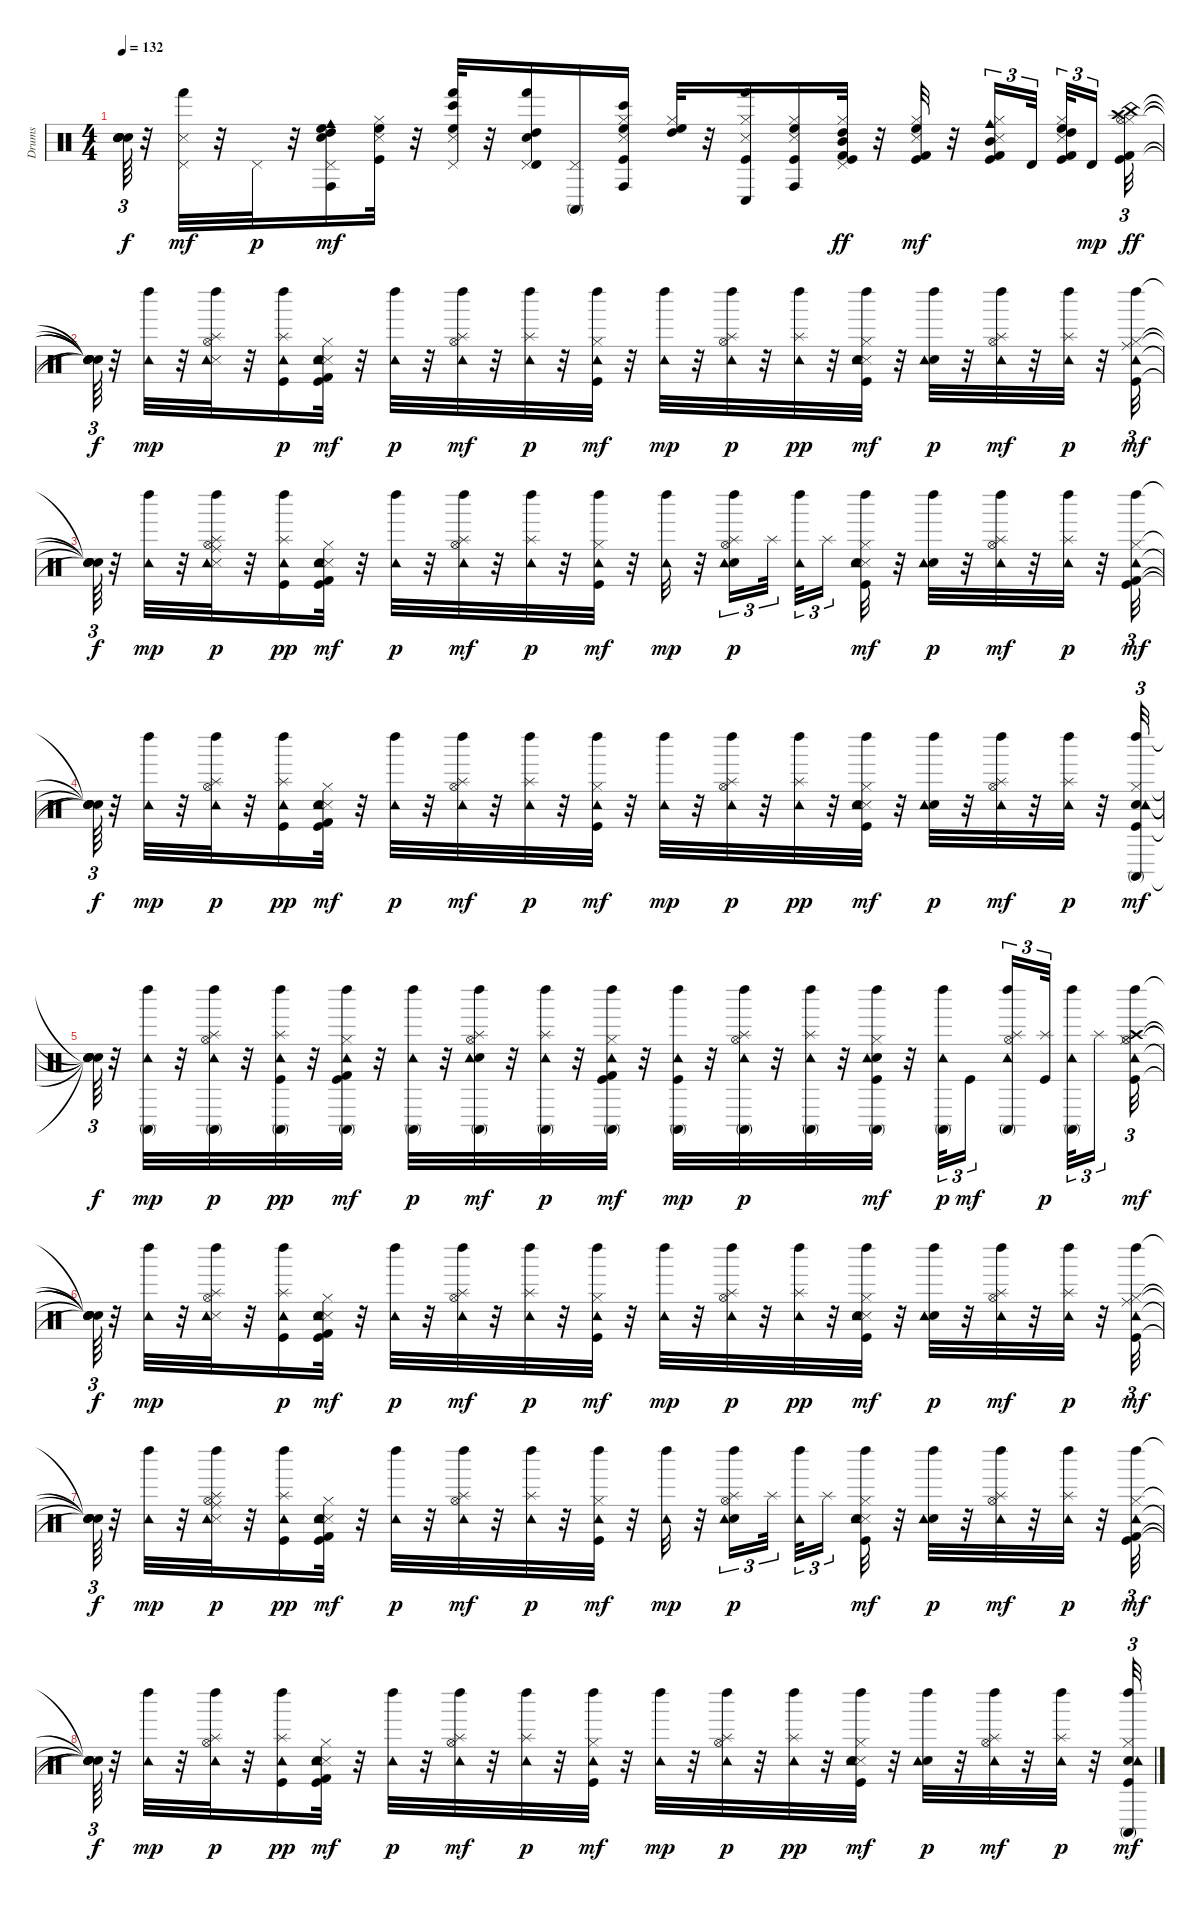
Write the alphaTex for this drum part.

\track ("Drums" "Drums") {instrument percussion}
\staff {score}
\articulation defaults
\ts (4 4)
\tempo 132
\clef neutral
\ks c
("Snare (hit)"{t} "Snare (hit)"{t} "Snare (hit)"{t} "Snare (hit)"{t} "Snare (hit)"{t} "Snare (hit)"{t}).64{tu (3 2) dy f} r.32 ("Snare (side stick) 3" "Pedal Hi-Hat (hit)" "Hand (hit)").32{dy mf} r.32 "Pedal Hi-Hat (hit)".32{dy p} r.32 ("Snare (hit) 2" "Pedal Hi-Hat (hit)" "High Tom (hit)" "High Floor Tom (hit)" "Cowbell medium (hit)" "Conga high (hit)").16{dy mf} ("Kick (hit)" "Snare (side stick) 3" "Hi-Hat (closed)" "High Floor Tom (hit)").32 r.32 ("Snare (side stick) 3" "Pedal Hi-Hat (hit)" "High Floor Tom (hit)" "Bongo High (hit)" "Hand (hit)").32 r.32 ("Snare (hit) 2" "Pedal Hi-Hat (hit)" "High Tom (hit)" "Hand (hit)" "Timbale high (hit)").16 ("Pedal Hi-Hat (hit)" "Conga high (mute)").16 ("Kick (hit)" "Snare (side stick) 3" "Hi-Hat (closed)" "High Floor Tom (hit)" "Bongo High (hit)" "Conga high (hit)").16 ("Hi-Hat (closed)" "High Tom (hit)" "High Floor Tom (hit)").32 r.32 ("Kick (hit)" "Snare (side stick) 3" "Hi-Hat (closed)" "Hand (hit)" "Conga low (hit)").16 ("Kick (hit)" "Snare (side stick) 3" "Hi-Hat (closed)" "High Floor Tom (hit)" "Conga high (hit)").16 ("Kick (hit)" "Kick (hit) 2" "Hi-Hat (closed)" "Pedal Hi-Hat (hit)" "Mid Tom (hit)" "High Tom (hit)").32{dy ff} r.32 ("Kick (hit)" "Kick (hit) 2" "Snare (side stick) 3" "Hi-Hat (closed)" "High Floor Tom (hit)").32{dy mf} r.32 ("Kick (hit)" "Kick (hit) 2" "Snare (side stick) 3" "Hi-Hat (closed)" "Mid Tom (hit)" "Cowbell medium (hit)").16{tu (3 2)} "Timbale high (hit)".32{tu (3 2) beam splitsecondary} ("Kick (hit)" "Kick (hit) 2" "Snare (side stick) 3" "Hi-Hat (closed)" "High Tom (hit)" "High Floor Tom (hit)").32{tu (3 2)} "Timbale high (hit)".16{tu (3 2) dy mp beam splitsecondary} ("Kick (hit)" "Kick (hit) 2" "Hi-Hat (closed)" "Hi-Hat (open)" "Crash high (hit)" "China (hit)").32{tu (3 2) dy ff} |
("Snare (hit)"{t} "Snare (hit)"{t} "Snare (hit)"{t} "Snare (hit)"{t} "Snare (hit)"{t} "Snare (hit)"{t}).64{tu (3 2) dy f} r.32 ("Tambourine (hit)" "Left Maraca (hit)").32{dy mp} r.32 ("Snare (side stick) 3" "Hi-Hat (open)" "Tambourine (hit)" "Splash (hit)" "Left Maraca (hit)").32 r.32 ("Kick (hit)" "Tambourine (hit)" "Splash (hit)" "Left Maraca (hit)").16{dy p} ("Kick (hit)" "Kick (hit) 2" "Snare (side stick) 3" "Hand Clap (hit)" "Hi-Hat (closed)" "Tambourine (hit)").32{dy mf} r.32 ("Tambourine (hit)" "Left Maraca (hit)").32{dy p} r.32 ("Hi-Hat (open)" "Tambourine (hit)" "Splash (hit)" "Left Maraca (hit)").32{dy mf} r.32 ("Tambourine (hit)" "Splash (hit)" "Left Maraca (hit)").32{dy p} r.32 ("Kick (hit)" "Hi-Hat (closed)" "Tambourine (hit)" "Left Maraca (hit)").32{dy mf} r.32 ("Tambourine (hit)" "Left Maraca (hit)").32{dy mp} r.32 ("Hi-Hat (open)" "Tambourine (hit)" "Splash (hit)" "Left Maraca (hit)").32{dy p} r.32 ("Tambourine (hit)" "Splash (hit)" "Left Maraca (hit)").32{dy pp} r.32 ("Kick (hit)" "Snare (side stick) 3" "Hand Clap (hit)" "Hi-Hat (closed)" "Tambourine (hit)" "Left Maraca (hit)").32{dy mf} r.32 ("Hand Clap (hit)" "Tambourine (hit)" "Left Maraca (hit)").32{dy p} r.32 ("Hi-Hat (open)" "Tambourine (hit)" "Splash (hit)" "Left Maraca (hit)").32{dy mf} r.32 ("Tambourine (hit)" "Splash (hit)" "Left Maraca (hit)").32{dy p} r.32 ("Kick (hit)" "Hi-Hat (closed)" "Ride (middle)" "Tambourine (hit)" "Left Maraca (hit)").32{tu (3 2) dy mf} |
("Snare (hit)"{t} "Snare (hit)"{t} "Snare (hit)"{t} "Snare (hit)"{t} "Snare (hit)"{t}).64{tu (3 2) dy f} r.32 ("Tambourine (hit)" "Left Maraca (hit)").32{dy mp} r.32 ("Snare (side stick) 3" "Hi-Hat (open)" "Ride (middle)" "Tambourine (hit)" "Splash (hit)" "Left Maraca (hit)").32{dy p} r.32 ("Kick (hit)" "Tambourine (hit)" "Splash (hit)" "Left Maraca (hit)").16{dy pp} ("Kick (hit)" "Kick (hit) 2" "Snare (side stick) 3" "Hand Clap (hit)" "Hi-Hat (closed)" "Tambourine (hit)").32{dy mf} r.32 ("Tambourine (hit)" "Left Maraca (hit)").32{dy p} r.32 ("Hi-Hat (open)" "Tambourine (hit)" "Splash (hit)" "Left Maraca (hit)").32{dy mf} r.32 ("Tambourine (hit)" "Splash (hit)" "Left Maraca (hit)").32{dy p} r.32 ("Kick (hit)" "Hi-Hat (closed)" "Tambourine (hit)" "Left Maraca (hit)").32{dy mf} r.32 ("Tambourine (hit)" "Left Maraca (hit)").32{dy mp} r.32 ("Hand Clap (hit)" "Hi-Hat (open)" "Tambourine (hit)" "Splash (hit)" "Left Maraca (hit)").16{tu (3 2) dy p} "Splash (hit)".32{tu (3 2) beam splitsecondary} ("Tambourine (hit)" "Left Maraca (hit)").32{tu (3 2)} "Splash (hit)".16{tu (3 2) beam splitsecondary} ("Kick (hit)" "Snare (side stick) 3" "Hand Clap (hit)" "Hi-Hat (closed)" "Tambourine (hit)" "Left Maraca (hit)").32{dy mf} r.32 ("Hand Clap (hit)" "Tambourine (hit)" "Left Maraca (hit)").32{dy p} r.32 ("Hi-Hat (open)" "Tambourine (hit)" "Splash (hit)" "Left Maraca (hit)").32{dy mf} r.32 ("Tambourine (hit)" "Splash (hit)" "Left Maraca (hit)").32{dy p} r.32 ("Kick (hit)" "Kick (hit) 2" "Hi-Hat (closed)" "Tambourine (hit)" "Left Maraca (hit)").32{tu (3 2) dy mf} |
("Snare (hit)"{t} "Snare (hit)"{t} "Snare (hit)"{t} "Snare (hit)"{t} "Snare (hit)"{t}).64{tu (3 2) dy f} r.32 ("Tambourine (hit)" "Left Maraca (hit)").32{dy mp} r.32 ("Hi-Hat (open)" "Tambourine (hit)" "Splash (hit)" "Left Maraca (hit)").32{dy p} r.32 ("Kick (hit)" "Tambourine (hit)" "Splash (hit)" "Left Maraca (hit)").16{dy pp} ("Kick (hit)" "Kick (hit) 2" "Snare (side stick) 3" "Hand Clap (hit)" "Hi-Hat (closed)" "Tambourine (hit)").32{dy mf} r.32 ("Tambourine (hit)" "Left Maraca (hit)").32{dy p} r.32 ("Hi-Hat (open)" "Tambourine (hit)" "Splash (hit)" "Left Maraca (hit)").32{dy mf} r.32 ("Tambourine (hit)" "Splash (hit)" "Left Maraca (hit)").32{dy p} r.32 ("Kick (hit)" "Hi-Hat (closed)" "Tambourine (hit)" "Left Maraca (hit)").32{dy mf} r.32 ("Tambourine (hit)" "Left Maraca (hit)").32{dy mp} r.32 ("Hi-Hat (open)" "Tambourine (hit)" "Splash (hit)" "Left Maraca (hit)").32{dy p} r.32 ("Tambourine (hit)" "Splash (hit)" "Left Maraca (hit)").32{dy pp} r.32 ("Kick (hit)" "Snare (side stick) 3" "Hand Clap (hit)" "Hi-Hat (closed)" "Tambourine (hit)" "Left Maraca (hit)").32{dy mf} r.32 ("Hand Clap (hit)" "Tambourine (hit)" "Left Maraca (hit)").32{dy p} r.32 ("Hi-Hat (open)" "Tambourine (hit)" "Splash (hit)" "Left Maraca (hit)").32{dy mf} r.32 ("Tambourine (hit)" "Splash (hit)" "Left Maraca (hit)").32{dy p} r.32 ("Kick (hit)" "Hand Clap (hit)" "Hi-Hat (closed)" "Tambourine (hit)" "Conga high (mute)" "Left Maraca (hit)").32{tu (3 2) dy mf} |
("Snare (hit)"{t} "Snare (hit)"{t} "Snare (hit)"{t} "Snare (hit)"{t} "Snare (hit)"{t} "Snare (hit)"{t}).64{tu (3 2) dy f} r.32 ("Tambourine (hit)" "Conga high (mute)" "Left Maraca (hit)").32{dy mp} r.32 ("Hi-Hat (open)" "Tambourine (hit)" "Splash (hit)" "Conga high (mute)" "Left Maraca (hit)").32{dy p} r.32 ("Kick (hit)" "Tambourine (hit)" "Splash (hit)" "Conga high (mute)" "Left Maraca (hit)").32{dy pp} r.32 ("Kick (hit)" "Kick (hit) 2" "Hi-Hat (closed)" "Tambourine (hit)" "Conga high (mute)" "Left Maraca (hit)").32{dy mf} r.32 ("Tambourine (hit)" "Conga high (mute)" "Left Maraca (hit)").32{dy p} r.32 ("Hand Clap (hit)" "Hi-Hat (open)" "Tambourine (hit)" "Splash (hit)" "Conga high (mute)" "Left Maraca (hit)").32{dy mf} r.32 ("Tambourine (hit)" "Splash (hit)" "Conga high (mute)" "Left Maraca (hit)").32{dy p} r.32 ("Kick (hit)" "Kick (hit) 2" "Hi-Hat (closed)" "Tambourine (hit)" "Conga high (mute)" "Left Maraca (hit)").32{dy mf} r.32 ("Kick (hit)" "Tambourine (hit)" "Conga high (mute)" "Left Maraca (hit)").32{dy mp} r.32 ("Hi-Hat (open)" "Tambourine (hit)" "Splash (hit)" "Conga high (mute)" "Left Maraca (hit)").32{dy p} r.32 ("Tambourine (hit)" "Splash (hit)" "Conga high (mute)" "Left Maraca (hit)").32 r.32 ("Kick (hit)" "Hand Clap (hit)" "Hi-Hat (closed)" "Tambourine (hit)" "Conga high (mute)" "Left Maraca (hit)").32{dy mf} r.32 ("Tambourine (hit)" "Conga high (mute)" "Left Maraca (hit)").32{tu (3 2) dy p} "Kick (hit)".16{tu (3 2) dy mf beam splitsecondary} ("Hi-Hat (open)" "Tambourine (hit)" "Splash (hit)" "Conga high (mute)" "Left Maraca (hit)").16{tu (3 2)} ("Kick (hit)" "Splash (hit)").32{tu (3 2) dy p beam splitsecondary} ("Tambourine (hit)" "Conga high (mute)" "Left Maraca (hit)").32{tu (3 2)} "Splash (hit)".16{tu (3 2) beam splitsecondary} ("Kick (hit)" "Hi-Hat (closed)" "Hi-Hat (open)" "Crash high (hit)" "Tambourine (hit)" "Left Maraca (hit)").32{tu (3 2) dy mf} |
("Snare (hit)"{t} "Snare (hit)"{t} "Snare (hit)"{t} "Snare (hit)"{t} "Snare (hit)"{t} "Snare (hit)"{t}).64{tu (3 2) dy f} r.32 ("Tambourine (hit)" "Left Maraca (hit)").32{dy mp} r.32 ("Snare (side stick) 3" "Hi-Hat (open)" "Tambourine (hit)" "Splash (hit)" "Left Maraca (hit)").32 r.32 ("Kick (hit)" "Tambourine (hit)" "Splash (hit)" "Left Maraca (hit)").16{dy p} ("Kick (hit)" "Kick (hit) 2" "Snare (side stick) 3" "Hand Clap (hit)" "Hi-Hat (closed)" "Tambourine (hit)").32{dy mf} r.32 ("Tambourine (hit)" "Left Maraca (hit)").32{dy p} r.32 ("Hi-Hat (open)" "Tambourine (hit)" "Splash (hit)" "Left Maraca (hit)").32{dy mf} r.32 ("Tambourine (hit)" "Splash (hit)" "Left Maraca (hit)").32{dy p} r.32 ("Kick (hit)" "Hi-Hat (closed)" "Tambourine (hit)" "Left Maraca (hit)").32{dy mf} r.32 ("Tambourine (hit)" "Left Maraca (hit)").32{dy mp} r.32 ("Hi-Hat (open)" "Tambourine (hit)" "Splash (hit)" "Left Maraca (hit)").32{dy p} r.32 ("Tambourine (hit)" "Splash (hit)" "Left Maraca (hit)").32{dy pp} r.32 ("Kick (hit)" "Snare (side stick) 3" "Hand Clap (hit)" "Hi-Hat (closed)" "Tambourine (hit)" "Left Maraca (hit)").32{dy mf} r.32 ("Hand Clap (hit)" "Tambourine (hit)" "Left Maraca (hit)").32{dy p} r.32 ("Hi-Hat (open)" "Tambourine (hit)" "Splash (hit)" "Left Maraca (hit)").32{dy mf} r.32 ("Tambourine (hit)" "Splash (hit)" "Left Maraca (hit)").32{dy p} r.32 ("Kick (hit)" "Hi-Hat (closed)" "Ride (middle)" "Tambourine (hit)" "Left Maraca (hit)").32{tu (3 2) dy mf} |
("Snare (hit)"{t} "Snare (hit)"{t} "Snare (hit)"{t} "Snare (hit)"{t} "Snare (hit)"{t}).64{tu (3 2) dy f} r.32 ("Tambourine (hit)" "Left Maraca (hit)").32{dy mp} r.32 ("Snare (side stick) 3" "Hi-Hat (open)" "Ride (middle)" "Tambourine (hit)" "Splash (hit)" "Left Maraca (hit)").32{dy p} r.32 ("Kick (hit)" "Tambourine (hit)" "Splash (hit)" "Left Maraca (hit)").16{dy pp} ("Kick (hit)" "Kick (hit) 2" "Snare (side stick) 3" "Hand Clap (hit)" "Hi-Hat (closed)" "Tambourine (hit)").32{dy mf} r.32 ("Tambourine (hit)" "Left Maraca (hit)").32{dy p} r.32 ("Hi-Hat (open)" "Tambourine (hit)" "Splash (hit)" "Left Maraca (hit)").32{dy mf} r.32 ("Tambourine (hit)" "Splash (hit)" "Left Maraca (hit)").32{dy p} r.32 ("Kick (hit)" "Hi-Hat (closed)" "Tambourine (hit)" "Left Maraca (hit)").32{dy mf} r.32 ("Tambourine (hit)" "Left Maraca (hit)").32{dy mp} r.32 ("Hand Clap (hit)" "Hi-Hat (open)" "Tambourine (hit)" "Splash (hit)" "Left Maraca (hit)").16{tu (3 2) dy p} "Splash (hit)".32{tu (3 2) beam splitsecondary} ("Tambourine (hit)" "Left Maraca (hit)").32{tu (3 2)} "Splash (hit)".16{tu (3 2) beam splitsecondary} ("Kick (hit)" "Snare (side stick) 3" "Hand Clap (hit)" "Hi-Hat (closed)" "Tambourine (hit)" "Left Maraca (hit)").32{dy mf} r.32 ("Hand Clap (hit)" "Tambourine (hit)" "Left Maraca (hit)").32{dy p} r.32 ("Hi-Hat (open)" "Tambourine (hit)" "Splash (hit)" "Left Maraca (hit)").32{dy mf} r.32 ("Tambourine (hit)" "Splash (hit)" "Left Maraca (hit)").32{dy p} r.32 ("Kick (hit)" "Kick (hit) 2" "Hi-Hat (closed)" "Tambourine (hit)" "Left Maraca (hit)").32{tu (3 2) dy mf} |
("Snare (hit)"{t} "Snare (hit)"{t} "Snare (hit)"{t} "Snare (hit)"{t} "Snare (hit)"{t}).64{tu (3 2) dy f} r.32 ("Tambourine (hit)" "Left Maraca (hit)").32{dy mp} r.32 ("Hi-Hat (open)" "Tambourine (hit)" "Splash (hit)" "Left Maraca (hit)").32{dy p} r.32 ("Kick (hit)" "Tambourine (hit)" "Splash (hit)" "Left Maraca (hit)").16{dy pp} ("Kick (hit)" "Kick (hit) 2" "Snare (side stick) 3" "Hand Clap (hit)" "Hi-Hat (closed)" "Tambourine (hit)").32{dy mf} r.32 ("Tambourine (hit)" "Left Maraca (hit)").32{dy p} r.32 ("Hi-Hat (open)" "Tambourine (hit)" "Splash (hit)" "Left Maraca (hit)").32{dy mf} r.32 ("Tambourine (hit)" "Splash (hit)" "Left Maraca (hit)").32{dy p} r.32 ("Kick (hit)" "Hi-Hat (closed)" "Tambourine (hit)" "Left Maraca (hit)").32{dy mf} r.32 ("Tambourine (hit)" "Left Maraca (hit)").32{dy mp} r.32 ("Hi-Hat (open)" "Tambourine (hit)" "Splash (hit)" "Left Maraca (hit)").32{dy p} r.32 ("Tambourine (hit)" "Splash (hit)" "Left Maraca (hit)").32{dy pp} r.32 ("Kick (hit)" "Snare (side stick) 3" "Hand Clap (hit)" "Hi-Hat (closed)" "Tambourine (hit)" "Left Maraca (hit)").32{dy mf} r.32 ("Hand Clap (hit)" "Tambourine (hit)" "Left Maraca (hit)").32{dy p} r.32 ("Hi-Hat (open)" "Tambourine (hit)" "Splash (hit)" "Left Maraca (hit)").32{dy mf} r.32 ("Tambourine (hit)" "Splash (hit)" "Left Maraca (hit)").32{dy p} r.32 ("Kick (hit)" "Hand Clap (hit)" "Hi-Hat (closed)" "Tambourine (hit)" "Conga high (mute)" "Left Maraca (hit)").32{tu (3 2) dy mf}
